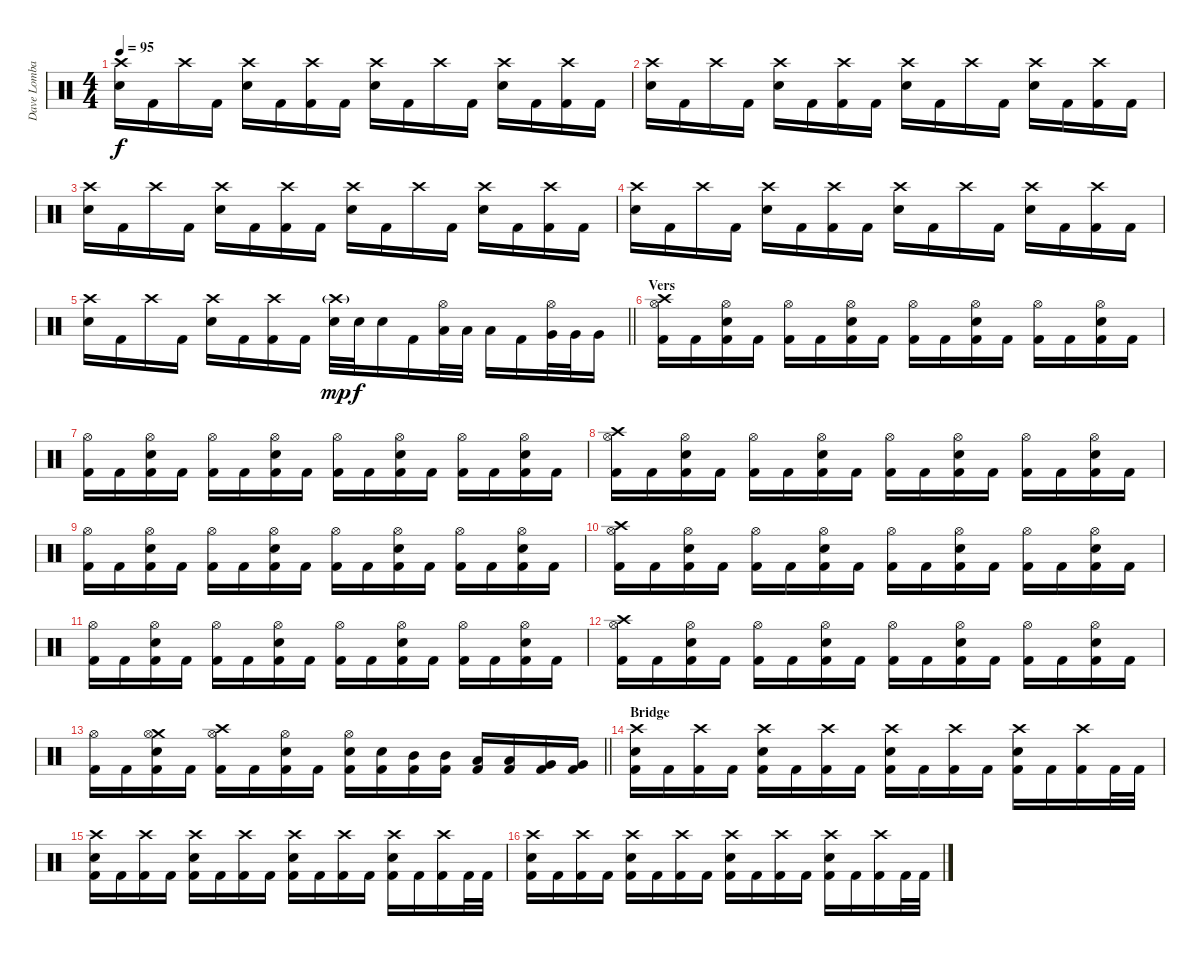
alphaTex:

\track ("Dave Lombardo" "Dave Lomba") {instrument percussion}
\staff {score}
\articulation defaults
\ts (4 4)
\tempo 95
\clef neutral
\ks c
("Crash high (hit)" "Snare (hit) 2").16{dy f} "Kick (hit) 2".16 "Crash high (hit)".16 "Kick (hit) 2".16 ("Crash high (hit)" "Snare (hit) 2").16 "Kick (hit) 2".16 ("Crash high (hit)" "Kick (hit) 2").16 "Kick (hit) 2".16 ("Crash high (hit)" "Snare (hit) 2").16 "Kick (hit) 2".16 "Crash high (hit)".16 "Kick (hit) 2".16 ("Crash high (hit)" "Snare (hit) 2").16 "Kick (hit) 2".16 ("Crash high (hit)" "Kick (hit) 2").16 "Kick (hit) 2".16 |
("Crash high (hit)" "Snare (hit) 2").16 "Kick (hit) 2".16 "Crash high (hit)".16 "Kick (hit) 2".16 ("Crash high (hit)" "Snare (hit) 2").16 "Kick (hit) 2".16 ("Crash high (hit)" "Kick (hit) 2").16 "Kick (hit) 2".16 ("Crash high (hit)" "Snare (hit) 2").16 "Kick (hit) 2".16 "Crash high (hit)".16 "Kick (hit) 2".16 ("Crash high (hit)" "Snare (hit) 2").16 "Kick (hit) 2".16 ("Crash high (hit)" "Kick (hit) 2").16 "Kick (hit) 2".16 |
("Crash high (hit)" "Snare (hit) 2").16 "Kick (hit) 2".16 "Crash high (hit)".16 "Kick (hit) 2".16 ("Crash high (hit)" "Snare (hit) 2").16 "Kick (hit) 2".16 ("Crash high (hit)" "Kick (hit) 2").16 "Kick (hit) 2".16 ("Crash high (hit)" "Snare (hit) 2").16 "Kick (hit) 2".16 "Crash high (hit)".16 "Kick (hit) 2".16 ("Crash high (hit)" "Snare (hit) 2").16 "Kick (hit) 2".16 ("Crash high (hit)" "Kick (hit) 2").16 "Kick (hit) 2".16 |
("Crash high (hit)" "Snare (hit) 2").16 "Kick (hit) 2".16 "Crash high (hit)".16 "Kick (hit) 2".16 ("Crash high (hit)" "Snare (hit) 2").16 "Kick (hit) 2".16 ("Crash high (hit)" "Kick (hit) 2").16 "Kick (hit) 2".16 ("Crash high (hit)" "Snare (hit) 2").16 "Kick (hit) 2".16 "Crash high (hit)".16 "Kick (hit) 2".16 ("Crash high (hit)" "Snare (hit) 2").16 "Kick (hit) 2".16 ("Crash high (hit)" "Kick (hit) 2").16 "Kick (hit) 2".16 |
\barLineRight lightlight
("Crash high (hit)" "Snare (hit) 2").16 "Kick (hit) 2".16 "Crash high (hit)".16 "Kick (hit) 2".16 ("Crash high (hit)" "Snare (hit) 2").16 "Kick (hit) 2".16 ("Crash high (hit)" "Kick (hit) 2").16 "Kick (hit) 2".16 ("Crash high (hit)"{g} "Snare (hit) 2").32{dy mp} "Snare (hit) 2".32{dy f} "Snare (hit) 2".16 "Kick (hit) 2".16 ("Hi-Hat (open)" "Low Tom (hit)").32 "Low Tom (hit)".32 "Low Tom (hit)".16 "Kick (hit) 2".16 ("Hi-Hat (open)" "Very Low Tom (hit)").32 "Very Low Tom (hit)".32 "Very Low Tom (hit)".16 |
\section ("" "Vers")
("Crash high (hit)" "Hi-Hat (open)" "Kick (hit) 2").16 "Kick (hit) 2".16 ("Hi-Hat (open)" "Snare (hit) 2" "Kick (hit) 2").16 "Kick (hit) 2".16 ("Hi-Hat (open)" "Kick (hit) 2").16 "Kick (hit) 2".16 ("Hi-Hat (open)" "Snare (hit) 2" "Kick (hit) 2").16 "Kick (hit) 2".16 ("Hi-Hat (open)" "Kick (hit) 2").16 "Kick (hit) 2".16 ("Hi-Hat (open)" "Snare (hit) 2" "Kick (hit) 2").16 "Kick (hit) 2".16 ("Hi-Hat (open)" "Kick (hit) 2").16 "Kick (hit) 2".16 ("Hi-Hat (open)" "Snare (hit) 2" "Kick (hit) 2").16 "Kick (hit) 2".16 |
("Hi-Hat (open)" "Kick (hit) 2").16 "Kick (hit) 2".16 ("Hi-Hat (open)" "Snare (hit) 2" "Kick (hit) 2").16 "Kick (hit) 2".16 ("Hi-Hat (open)" "Kick (hit) 2").16 "Kick (hit) 2".16 ("Hi-Hat (open)" "Snare (hit) 2" "Kick (hit) 2").16 "Kick (hit) 2".16 ("Hi-Hat (open)" "Kick (hit) 2").16 "Kick (hit) 2".16 ("Hi-Hat (open)" "Snare (hit) 2" "Kick (hit) 2").16 "Kick (hit) 2".16 ("Hi-Hat (open)" "Kick (hit) 2").16 "Kick (hit) 2".16 ("Hi-Hat (open)" "Snare (hit) 2" "Kick (hit) 2").16 "Kick (hit) 2".16 |
("Crash high (hit)" "Hi-Hat (open)" "Kick (hit) 2").16 "Kick (hit) 2".16 ("Hi-Hat (open)" "Snare (hit) 2" "Kick (hit) 2").16 "Kick (hit) 2".16 ("Hi-Hat (open)" "Kick (hit) 2").16 "Kick (hit) 2".16 ("Hi-Hat (open)" "Snare (hit) 2" "Kick (hit) 2").16 "Kick (hit) 2".16 ("Hi-Hat (open)" "Kick (hit) 2").16 "Kick (hit) 2".16 ("Hi-Hat (open)" "Snare (hit) 2" "Kick (hit) 2").16 "Kick (hit) 2".16 ("Hi-Hat (open)" "Kick (hit) 2").16 "Kick (hit) 2".16 ("Hi-Hat (open)" "Snare (hit) 2" "Kick (hit) 2").16 "Kick (hit) 2".16 |
("Hi-Hat (open)" "Kick (hit) 2").16 "Kick (hit) 2".16 ("Hi-Hat (open)" "Snare (hit) 2" "Kick (hit) 2").16 "Kick (hit) 2".16 ("Hi-Hat (open)" "Kick (hit) 2").16 "Kick (hit) 2".16 ("Hi-Hat (open)" "Snare (hit) 2" "Kick (hit) 2").16 "Kick (hit) 2".16 ("Hi-Hat (open)" "Kick (hit) 2").16 "Kick (hit) 2".16 ("Hi-Hat (open)" "Snare (hit) 2" "Kick (hit) 2").16 "Kick (hit) 2".16 ("Hi-Hat (open)" "Kick (hit) 2").16 "Kick (hit) 2".16 ("Hi-Hat (open)" "Snare (hit) 2" "Kick (hit) 2").16 "Kick (hit) 2".16 |
("Crash high (hit)" "Hi-Hat (open)" "Kick (hit) 2").16 "Kick (hit) 2".16 ("Hi-Hat (open)" "Snare (hit) 2" "Kick (hit) 2").16 "Kick (hit) 2".16 ("Hi-Hat (open)" "Kick (hit) 2").16 "Kick (hit) 2".16 ("Hi-Hat (open)" "Snare (hit) 2" "Kick (hit) 2").16 "Kick (hit) 2".16 ("Hi-Hat (open)" "Kick (hit) 2").16 "Kick (hit) 2".16 ("Hi-Hat (open)" "Snare (hit) 2" "Kick (hit) 2").16 "Kick (hit) 2".16 ("Hi-Hat (open)" "Kick (hit) 2").16 "Kick (hit) 2".16 ("Hi-Hat (open)" "Snare (hit) 2" "Kick (hit) 2").16 "Kick (hit) 2".16 |
("Hi-Hat (open)" "Kick (hit) 2").16 "Kick (hit) 2".16 ("Hi-Hat (open)" "Snare (hit) 2" "Kick (hit) 2").16 "Kick (hit) 2".16 ("Hi-Hat (open)" "Kick (hit) 2").16 "Kick (hit) 2".16 ("Hi-Hat (open)" "Snare (hit) 2" "Kick (hit) 2").16 "Kick (hit) 2".16 ("Hi-Hat (open)" "Kick (hit) 2").16 "Kick (hit) 2".16 ("Hi-Hat (open)" "Snare (hit) 2" "Kick (hit) 2").16 "Kick (hit) 2".16 ("Hi-Hat (open)" "Kick (hit) 2").16 "Kick (hit) 2".16 ("Hi-Hat (open)" "Snare (hit) 2" "Kick (hit) 2").16 "Kick (hit) 2".16 |
("Crash high (hit)" "Hi-Hat (open)" "Kick (hit) 2").16 "Kick (hit) 2".16 ("Hi-Hat (open)" "Snare (hit) 2" "Kick (hit) 2").16 "Kick (hit) 2".16 ("Hi-Hat (open)" "Kick (hit) 2").16 "Kick (hit) 2".16 ("Hi-Hat (open)" "Snare (hit) 2" "Kick (hit) 2").16 "Kick (hit) 2".16 ("Hi-Hat (open)" "Kick (hit) 2").16 "Kick (hit) 2".16 ("Hi-Hat (open)" "Snare (hit) 2" "Kick (hit) 2").16 "Kick (hit) 2".16 ("Hi-Hat (open)" "Kick (hit) 2").16 "Kick (hit) 2".16 ("Hi-Hat (open)" "Snare (hit) 2" "Kick (hit) 2").16 "Kick (hit) 2".16 |
\barLineRight lightlight
("Hi-Hat (open)" "Kick (hit) 2").16 "Kick (hit) 2".16 ("Crash medium (hit)" "Hi-Hat (open)" "Snare (hit) 2" "Kick (hit) 2").16 "Kick (hit) 2".16 ("Crash high (hit)" "Hi-Hat (open)" "Kick (hit) 2").16 "Kick (hit) 2".16 ("Hi-Hat (open)" "Snare (hit) 2" "Kick (hit) 2").16 "Kick (hit) 2".16 ("Hi-Hat (open)" "Snare (hit) 2" "Kick (hit) 2").16 ("Snare (hit) 2" "Kick (hit) 2").16 ("Mid Tom (hit)" "Kick (hit) 2").16 ("Mid Tom (hit)" "Kick (hit) 2").16 ("Low Tom (hit)" "Kick (hit) 2").16 ("Low Tom (hit)" "Kick (hit) 2").16 ("Very Low Tom (hit)" "Kick (hit) 2").16 ("Very Low Tom (hit)" "Kick (hit) 2").16 |
\section ("" "Bridge")
("Crash high (hit)" "Snare (hit) 2" "Kick (hit) 2").16 "Kick (hit) 2".16 ("Crash high (hit)" "Kick (hit) 2").16 "Kick (hit) 2".16 ("Crash high (hit)" "Snare (hit) 2" "Kick (hit) 2").16 "Kick (hit) 2".16 ("Crash high (hit)" "Kick (hit) 2").16 "Kick (hit) 2".16 ("Crash high (hit)" "Snare (hit) 2" "Kick (hit) 2").16 "Kick (hit) 2".16 ("Crash high (hit)" "Kick (hit) 2").16 "Kick (hit) 2".16 ("Crash high (hit)" "Snare (hit) 2" "Kick (hit) 2").16 "Kick (hit) 2".16 ("Crash high (hit)" "Kick (hit) 2").16 "Kick (hit) 2".32 "Kick (hit) 2".32 |
("Crash high (hit)" "Snare (hit) 2" "Kick (hit) 2").16 "Kick (hit) 2".16 ("Crash high (hit)" "Kick (hit) 2").16 "Kick (hit) 2".16 ("Crash high (hit)" "Snare (hit) 2" "Kick (hit) 2").16 "Kick (hit) 2".16 ("Crash high (hit)" "Kick (hit) 2").16 "Kick (hit) 2".16 ("Crash high (hit)" "Snare (hit) 2" "Kick (hit) 2").16 "Kick (hit) 2".16 ("Crash high (hit)" "Kick (hit) 2").16 "Kick (hit) 2".16 ("Crash high (hit)" "Snare (hit) 2" "Kick (hit) 2").16 "Kick (hit) 2".16 ("Crash high (hit)" "Kick (hit) 2").16 "Kick (hit) 2".32 "Kick (hit) 2".32 |
("Crash high (hit)" "Snare (hit) 2" "Kick (hit) 2").16 "Kick (hit) 2".16 ("Crash high (hit)" "Kick (hit) 2").16 "Kick (hit) 2".16 ("Crash high (hit)" "Snare (hit) 2" "Kick (hit) 2").16 "Kick (hit) 2".16 ("Crash high (hit)" "Kick (hit) 2").16 "Kick (hit) 2".16 ("Crash high (hit)" "Snare (hit) 2" "Kick (hit) 2").16 "Kick (hit) 2".16 ("Crash high (hit)" "Kick (hit) 2").16 "Kick (hit) 2".16 ("Crash high (hit)" "Snare (hit) 2" "Kick (hit) 2").16 "Kick (hit) 2".16 ("Crash high (hit)" "Kick (hit) 2").16 "Kick (hit) 2".32 "Kick (hit) 2".32
